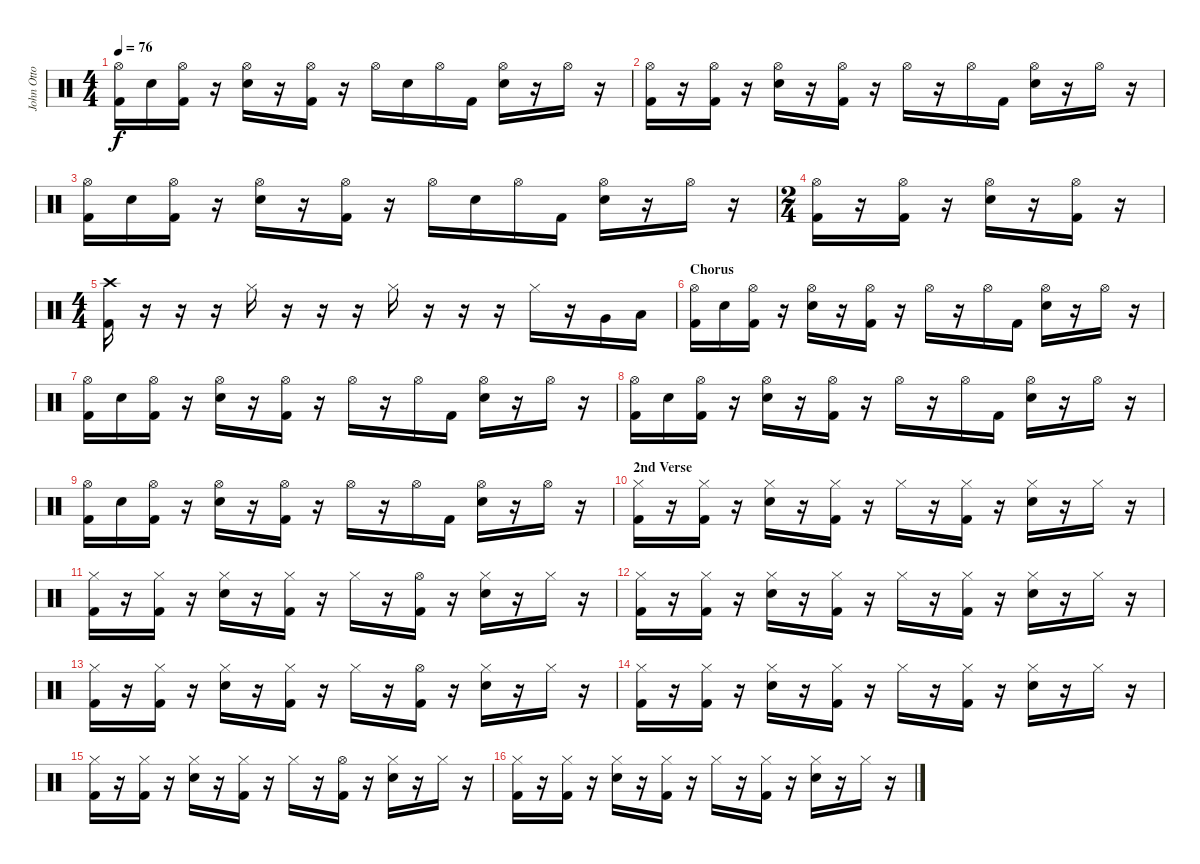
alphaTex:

\track ("John Otto" "John Otto") {instrument percussion}
\staff {score}
\articulation defaults
\ts (4 4)
\tempo 76
\clef neutral
\ks c
("Hi-Hat (open)" "Kick (hit) 2").16{dy f} "Snare (hit) 2".16 ("Hi-Hat (open)" "Kick (hit) 2").16 r.16 ("Hi-Hat (open)" "Snare (hit) 2").16 r.16 ("Hi-Hat (open)" "Kick (hit) 2").16 r.16 "Hi-Hat (open)".16 "Snare (hit) 2".16 "Hi-Hat (open)".16 "Kick (hit) 2".16 ("Hi-Hat (open)" "Snare (hit) 2").16 r.16 "Hi-Hat (open)".16 r.16 |
("Hi-Hat (open)" "Kick (hit) 2").16 r.16 ("Hi-Hat (open)" "Kick (hit) 2").16 r.16 ("Hi-Hat (open)" "Snare (hit) 2").16 r.16 ("Hi-Hat (open)" "Kick (hit) 2").16 r.16 "Hi-Hat (open)".16 r.16 "Hi-Hat (open)".16 "Kick (hit) 2".16 ("Hi-Hat (open)" "Snare (hit) 2").16 r.16 "Hi-Hat (open)".16 r.16 |
("Hi-Hat (open)" "Kick (hit) 2").16 "Snare (hit) 2".16 ("Hi-Hat (open)" "Kick (hit) 2").16 r.16 ("Hi-Hat (open)" "Snare (hit) 2").16 r.16 ("Hi-Hat (open)" "Kick (hit) 2").16 r.16 "Hi-Hat (open)".16 "Snare (hit) 2".16 "Hi-Hat (open)".16 "Kick (hit) 2".16 ("Hi-Hat (open)" "Snare (hit) 2").16 r.16 "Hi-Hat (open)".16 r.16 |
\ts (2 4)
("Hi-Hat (open)" "Kick (hit) 2").16 r.16 ("Hi-Hat (open)" "Kick (hit) 2").16 r.16 ("Hi-Hat (open)" "Snare (hit) 2").16 r.16 ("Hi-Hat (open)" "Kick (hit) 2").16 r.16 |
\ts (4 4)
("Crash high (hit)" "Kick (hit) 2").16 r.16 r.16 r.16 "Hi-Hat (closed)".16 r.16 r.16 r.16 "Hi-Hat (closed)".16 r.16 r.16 r.16 "Hi-Hat (closed)".16 r.16 "Very Low Tom (hit)".16 "Low Tom (hit)".16 |
\section ("" "Chorus")
("Hi-Hat (open)" "Kick (hit) 2").16 "Snare (hit) 2".16 ("Hi-Hat (open)" "Kick (hit) 2").16 r.16 ("Hi-Hat (open)" "Snare (hit) 2").16 r.16 ("Hi-Hat (open)" "Kick (hit) 2").16 r.16 "Hi-Hat (open)".16 r.16 "Hi-Hat (open)".16 "Kick (hit) 2".16 ("Hi-Hat (open)" "Snare (hit) 2").16 r.16 "Hi-Hat (open)".16 r.16 |
("Hi-Hat (open)" "Kick (hit) 2").16 "Snare (hit) 2".16 ("Hi-Hat (open)" "Kick (hit) 2").16 r.16 ("Hi-Hat (open)" "Snare (hit) 2").16 r.16 ("Hi-Hat (open)" "Kick (hit) 2").16 r.16 "Hi-Hat (open)".16 r.16 "Hi-Hat (open)".16 "Kick (hit) 2".16 ("Hi-Hat (open)" "Snare (hit) 2").16 r.16 "Hi-Hat (open)".16 r.16 |
("Hi-Hat (open)" "Kick (hit) 2").16 "Snare (hit) 2".16 ("Hi-Hat (open)" "Kick (hit) 2").16 r.16 ("Hi-Hat (open)" "Snare (hit) 2").16 r.16 ("Hi-Hat (open)" "Kick (hit) 2").16 r.16 "Hi-Hat (open)".16 r.16 "Hi-Hat (open)".16 "Kick (hit) 2".16 ("Hi-Hat (open)" "Snare (hit) 2").16 r.16 "Hi-Hat (open)".16 r.16 |
("Hi-Hat (open)" "Kick (hit) 2").16 "Snare (hit) 2".16 ("Hi-Hat (open)" "Kick (hit) 2").16 r.16 ("Hi-Hat (open)" "Snare (hit) 2").16 r.16 ("Hi-Hat (open)" "Kick (hit) 2").16 r.16 "Hi-Hat (open)".16 r.16 "Hi-Hat (open)".16 "Kick (hit) 2".16 ("Hi-Hat (open)" "Snare (hit) 2").16 r.16 "Hi-Hat (open)".16 r.16 |
\section ("" "2nd Verse")
("Hi-Hat (closed)" "Kick (hit) 2").16 r.16 ("Hi-Hat (closed)" "Kick (hit) 2").16 r.16 ("Hi-Hat (closed)" "Snare (hit) 2").16 r.16 ("Hi-Hat (closed)" "Kick (hit) 2").16 r.16 "Hi-Hat (closed)".16 r.16 ("Hi-Hat (closed)" "Kick (hit) 2").16 r.16 ("Hi-Hat (closed)" "Snare (hit) 2").16 r.16 "Hi-Hat (closed)".16 r.16 |
("Hi-Hat (closed)" "Kick (hit) 2").16 r.16 ("Hi-Hat (closed)" "Kick (hit) 2").16 r.16 ("Hi-Hat (closed)" "Snare (hit) 2").16 r.16 ("Hi-Hat (closed)" "Kick (hit) 2").16 r.16 "Hi-Hat (closed)".16 r.16 ("Hi-Hat (open)" "Kick (hit) 2").16 r.16 ("Hi-Hat (closed)" "Snare (hit) 2").16 r.16 "Hi-Hat (closed)".16 r.16 |
("Hi-Hat (closed)" "Kick (hit) 2").16 r.16 ("Hi-Hat (closed)" "Kick (hit) 2").16 r.16 ("Hi-Hat (closed)" "Snare (hit) 2").16 r.16 ("Hi-Hat (closed)" "Kick (hit) 2").16 r.16 "Hi-Hat (closed)".16 r.16 ("Hi-Hat (closed)" "Kick (hit) 2").16 r.16 ("Hi-Hat (closed)" "Snare (hit) 2").16 r.16 "Hi-Hat (closed)".16 r.16 |
("Hi-Hat (closed)" "Kick (hit) 2").16 r.16 ("Hi-Hat (closed)" "Kick (hit) 2").16 r.16 ("Hi-Hat (closed)" "Snare (hit) 2").16 r.16 ("Hi-Hat (closed)" "Kick (hit) 2").16 r.16 "Hi-Hat (closed)".16 r.16 ("Hi-Hat (open)" "Kick (hit) 2").16 r.16 ("Hi-Hat (closed)" "Snare (hit) 2").16 r.16 "Hi-Hat (closed)".16 r.16 |
("Hi-Hat (closed)" "Kick (hit) 2").16 r.16 ("Hi-Hat (closed)" "Kick (hit) 2").16 r.16 ("Hi-Hat (closed)" "Snare (hit) 2").16 r.16 ("Hi-Hat (closed)" "Kick (hit) 2").16 r.16 "Hi-Hat (closed)".16 r.16 ("Hi-Hat (closed)" "Kick (hit) 2").16 r.16 ("Hi-Hat (closed)" "Snare (hit) 2").16 r.16 "Hi-Hat (closed)".16 r.16 |
("Hi-Hat (closed)" "Kick (hit) 2").16 r.16 ("Hi-Hat (closed)" "Kick (hit) 2").16 r.16 ("Hi-Hat (closed)" "Snare (hit) 2").16 r.16 ("Hi-Hat (closed)" "Kick (hit) 2").16 r.16 "Hi-Hat (closed)".16 r.16 ("Hi-Hat (open)" "Kick (hit) 2").16 r.16 ("Hi-Hat (closed)" "Snare (hit) 2").16 r.16 "Hi-Hat (closed)".16 r.16 |
("Hi-Hat (closed)" "Kick (hit) 2").16 r.16 ("Hi-Hat (closed)" "Kick (hit) 2").16 r.16 ("Hi-Hat (closed)" "Snare (hit) 2").16 r.16 ("Hi-Hat (closed)" "Kick (hit) 2").16 r.16 "Hi-Hat (closed)".16 r.16 ("Hi-Hat (closed)" "Kick (hit) 2").16 r.16 ("Hi-Hat (closed)" "Snare (hit) 2").16 r.16 "Hi-Hat (closed)".16 r.16
